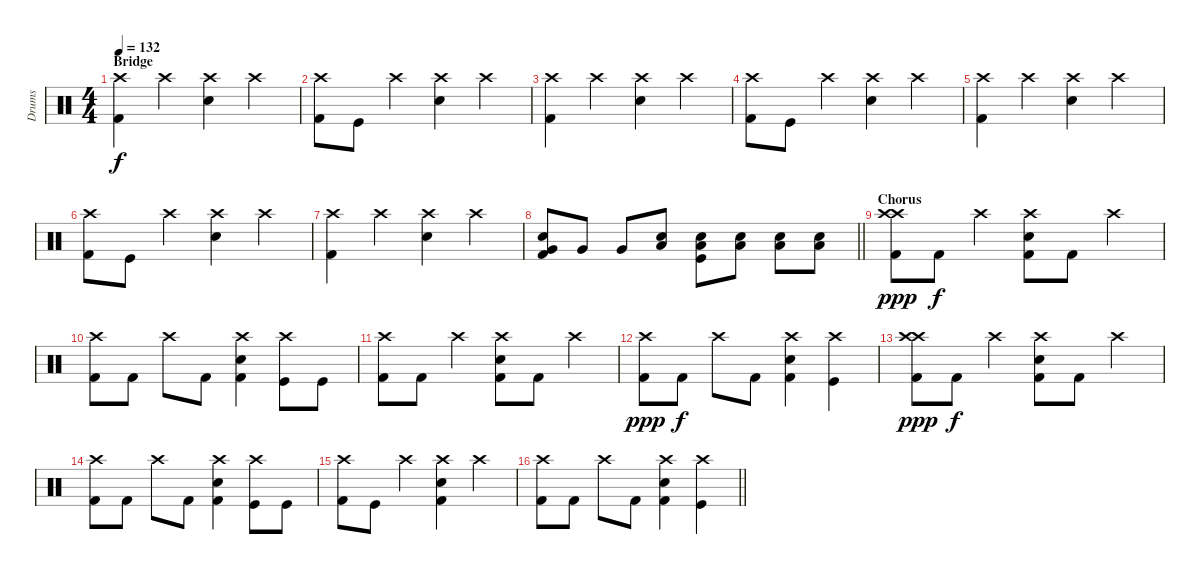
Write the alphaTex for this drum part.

\track ("Drums" "Drums") {instrument percussion}
\staff {score}
\articulation defaults
\ts (4 4)
\section ("" "Bridge")
\tempo 132
\clef neutral
\ks c
("Crash high (hit)" "Kick (hit) 2").4{dy f} "Crash high (hit)".4 ("Crash high (hit)" "Snare (hit) 2").4 "Crash high (hit)".4 |
("Crash high (hit)" "Kick (hit) 2").8 "Kick (hit)".8 "Crash high (hit)".4 ("Crash high (hit)" "Snare (hit) 2").4 "Crash high (hit)".4 |
("Crash high (hit)" "Kick (hit) 2").4 "Crash high (hit)".4 ("Crash high (hit)" "Snare (hit) 2").4 "Crash high (hit)".4 |
("Crash high (hit)" "Kick (hit) 2").8 "Kick (hit)".8 "Crash high (hit)".4 ("Crash high (hit)" "Snare (hit) 2").4 "Crash high (hit)".4 |
("Crash high (hit)" "Kick (hit) 2").4 "Crash high (hit)".4 ("Crash high (hit)" "Snare (hit) 2").4 "Crash high (hit)".4 |
("Crash high (hit)" "Kick (hit) 2").8 "Kick (hit)".8 "Crash high (hit)".4 ("Crash high (hit)" "Snare (hit) 2").4 "Crash high (hit)".4 |
("Crash high (hit)" "Kick (hit) 2").4 "Crash high (hit)".4 ("Crash high (hit)" "Snare (hit) 2").4 "Crash high (hit)".4 |
\barLineRight lightlight
("Snare (hit) 2" "Very Low Tom (hit)" "Kick (hit) 2").8 "Very Low Tom (hit)".8 "Very Low Tom (hit)".8 ("Snare (hit) 2" "Low Tom (hit)").8 ("Snare (hit) 2" "Low Tom (hit)" "Kick (hit)").8 ("Snare (hit) 2" "Low Tom (hit)").8 ("Snare (hit) 2" "Low Tom (hit)").8 ("Snare (hit) 2" "Low Tom (hit)").8 |
\section ("" "Chorus")
("Crash high (hit)" "Crash high (hit)" "Kick (hit) 2").8{dy ppp} "Kick (hit) 2".8{dy f} "Crash high (hit)".4 ("Crash high (hit)" "Electric Snare (hit)" "Kick (hit) 2").8 "Kick (hit) 2".8 "Crash high (hit)".4 |
("Crash high (hit)" "Kick (hit) 2").8 "Kick (hit) 2".8 "Crash high (hit)".8 "Kick (hit) 2".8 ("Crash high (hit)" "Electric Snare (hit)" "Kick (hit) 2").4 ("Crash high (hit)" "Kick (hit)").8 "Kick (hit)".8 |
("Crash high (hit)" "Kick (hit) 2").8 "Kick (hit) 2".8 "Crash high (hit)".4 ("Crash high (hit)" "Electric Snare (hit)" "Kick (hit) 2").8 "Kick (hit) 2".8 "Crash high (hit)".4 |
("Crash high (hit)" "Kick (hit) 2").8{dy ppp} "Kick (hit) 2".8{dy f} "Crash high (hit)".8 "Kick (hit) 2".8 ("Crash high (hit)" "Electric Snare (hit)" "Kick (hit) 2").4 ("Crash high (hit)" "Kick (hit)").4 |
("Crash high (hit)" "Crash high (hit)" "Kick (hit) 2").8{dy ppp} "Kick (hit) 2".8{dy f} "Crash high (hit)".4 ("Crash high (hit)" "Electric Snare (hit)" "Kick (hit) 2").8 "Kick (hit) 2".8 "Crash high (hit)".4 |
("Crash high (hit)" "Kick (hit) 2").8 "Kick (hit) 2".8 "Crash high (hit)".8 "Kick (hit) 2".8 ("Crash high (hit)" "Electric Snare (hit)" "Kick (hit) 2").4 ("Crash high (hit)" "Kick (hit)").8 "Kick (hit)".8 |
("Crash high (hit)" "Kick (hit) 2").8 "Kick (hit)".8 "Crash high (hit)".4 ("Crash high (hit)" "Electric Snare (hit)" "Kick (hit) 2").4 "Crash high (hit)".4 |
\barLineRight lightlight
("Crash high (hit)" "Kick (hit) 2").8 "Kick (hit) 2".8 "Crash high (hit)".8 "Kick (hit) 2".8 ("Crash high (hit)" "Electric Snare (hit)" "Kick (hit) 2").4 ("Kick (hit)" "Crash high (hit)").4
